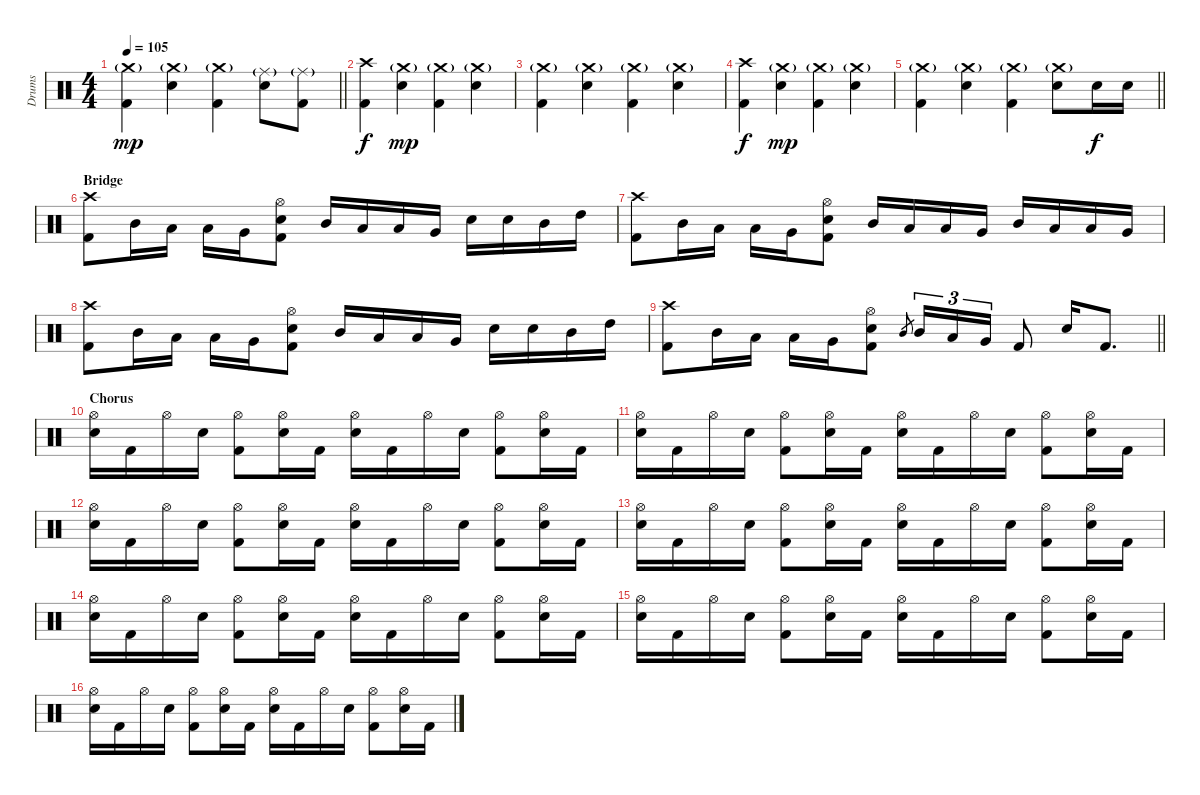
\track ("Drums" "Drums") {instrument percussion}
\staff {score}
\articulation defaults
\ts (4 4)
\tempo 105
\clef neutral
\barLineRight lightlight
\ks c
("Crash medium (hit)"{g} "Kick (hit) 2").4{dy mp} ("Crash medium (hit)"{g} "Snare (hit) 2").4 ("Crash medium (hit)"{g} "Kick (hit) 2").4 ("Ride (middle)"{g} "Snare (hit) 2").8 ("Ride (middle)"{g} "Kick (hit) 2").8 |
("Crash high (hit)" "Kick (hit) 2").4{dy f} ("Crash medium (hit)"{g} "Snare (hit) 2").4{dy mp} ("Crash medium (hit)"{g} "Kick (hit) 2").4 ("Crash medium (hit)"{g} "Snare (hit) 2").4 |
("Crash medium (hit)"{g} "Kick (hit) 2").4 ("Crash medium (hit)"{g} "Snare (hit) 2").4 ("Crash medium (hit)"{g} "Kick (hit) 2").4 ("Crash medium (hit)"{g} "Snare (hit) 2").4 |
("Crash high (hit)" "Kick (hit) 2").4{dy f} ("Crash medium (hit)"{g} "Snare (hit) 2").4{dy mp} ("Crash medium (hit)"{g} "Kick (hit) 2").4 ("Crash medium (hit)"{g} "Snare (hit) 2").4 |
\barLineRight lightlight
("Crash medium (hit)"{g} "Kick (hit) 2").4 ("Crash medium (hit)"{g} "Snare (hit) 2").4 ("Crash medium (hit)"{g} "Kick (hit) 2").4 ("Crash medium (hit)"{g} "Snare (hit) 2").8 "Snare (hit) 2".16{dy f} "Snare (hit) 2".16 |
\section ("" "Bridge")
("Crash high (hit)" "Kick (hit) 2").8 "Mid Tom (hit)".16 "Low Tom (hit)".16 "Low Tom (hit)".16 "Very Low Tom (hit)".16 ("Hi-Hat (open)" "Snare (hit) 2" "Kick (hit) 2").8 "Mid Tom (hit)".16 "Low Tom (hit)".16 "Low Tom (hit)".16 "Very Low Tom (hit)".16 "Snare (hit) 2".16 "Snare (hit) 2".16 "Mid Tom (hit)".16 "High Tom (hit)".16 |
("Crash high (hit)" "Kick (hit) 2").8 "Mid Tom (hit)".16 "Low Tom (hit)".16 "Low Tom (hit)".16 "Very Low Tom (hit)".16 ("Hi-Hat (open)" "Snare (hit) 2" "Kick (hit) 2").8 "Mid Tom (hit)".16 "Low Tom (hit)".16 "Low Tom (hit)".16 "Very Low Tom (hit)".16 "Mid Tom (hit)".16 "Low Tom (hit)".16 "Low Tom (hit)".16 "Very Low Tom (hit)".16 |
("Crash high (hit)" "Kick (hit) 2").8 "Mid Tom (hit)".16 "Low Tom (hit)".16 "Low Tom (hit)".16 "Very Low Tom (hit)".16 ("Hi-Hat (open)" "Snare (hit) 2" "Kick (hit) 2").8 "Mid Tom (hit)".16 "Low Tom (hit)".16 "Low Tom (hit)".16 "Very Low Tom (hit)".16 "Snare (hit) 2".16 "Snare (hit) 2".16 "Mid Tom (hit)".16 "High Tom (hit)".16 |
\barLineRight lightlight
("Crash high (hit)" "Kick (hit) 2").8 "Mid Tom (hit)".16 "Low Tom (hit)".16 "Low Tom (hit)".16 "Very Low Tom (hit)".16 ("Hi-Hat (open)" "Snare (hit) 2" "Kick (hit) 2").8 "Mid Tom (hit)".8{gr} "Mid Tom (hit)".16{tu (3 2)} "Low Tom (hit)".16{tu (3 2)} "Very Low Tom (hit)".16{tu (3 2)} "Kick (hit) 2".8 "Snare (hit) 2".16 "Kick (hit) 2".8{d} |
\section ("" "Chorus")
("Hi-Hat (open)" "Snare (hit) 2").16 "Kick (hit) 2".16 "Hi-Hat (open)".16 "Snare (hit) 2".16 ("Hi-Hat (open)" "Kick (hit) 2").8 ("Hi-Hat (open)" "Snare (hit) 2").16 "Kick (hit) 2".16 ("Hi-Hat (open)" "Snare (hit) 2").16 "Kick (hit) 2".16 "Hi-Hat (open)".16 "Snare (hit) 2".16 ("Hi-Hat (open)" "Kick (hit) 2").8 ("Hi-Hat (open)" "Snare (hit) 2").16 "Kick (hit) 2".16 |
("Hi-Hat (open)" "Snare (hit) 2").16 "Kick (hit) 2".16 "Hi-Hat (open)".16 "Snare (hit) 2".16 ("Hi-Hat (open)" "Kick (hit) 2").8 ("Hi-Hat (open)" "Snare (hit) 2").16 "Kick (hit) 2".16 ("Hi-Hat (open)" "Snare (hit) 2").16 "Kick (hit) 2".16 "Hi-Hat (open)".16 "Snare (hit) 2".16 ("Hi-Hat (open)" "Kick (hit) 2").8 ("Hi-Hat (open)" "Snare (hit) 2").16 "Kick (hit) 2".16 |
("Hi-Hat (open)" "Snare (hit) 2").16 "Kick (hit) 2".16 "Hi-Hat (open)".16 "Snare (hit) 2".16 ("Hi-Hat (open)" "Kick (hit) 2").8 ("Hi-Hat (open)" "Snare (hit) 2").16 "Kick (hit) 2".16 ("Hi-Hat (open)" "Snare (hit) 2").16 "Kick (hit) 2".16 "Hi-Hat (open)".16 "Snare (hit) 2".16 ("Hi-Hat (open)" "Kick (hit) 2").8 ("Hi-Hat (open)" "Snare (hit) 2").16 "Kick (hit) 2".16 |
("Hi-Hat (open)" "Snare (hit) 2").16 "Kick (hit) 2".16 "Hi-Hat (open)".16 "Snare (hit) 2".16 ("Hi-Hat (open)" "Kick (hit) 2").8 ("Hi-Hat (open)" "Snare (hit) 2").16 "Kick (hit) 2".16 ("Hi-Hat (open)" "Snare (hit) 2").16 "Kick (hit) 2".16 "Hi-Hat (open)".16 "Snare (hit) 2".16 ("Hi-Hat (open)" "Kick (hit) 2").8 ("Hi-Hat (open)" "Snare (hit) 2").16 "Kick (hit) 2".16 |
("Hi-Hat (open)" "Snare (hit) 2").16 "Kick (hit) 2".16 "Hi-Hat (open)".16 "Snare (hit) 2".16 ("Hi-Hat (open)" "Kick (hit) 2").8 ("Hi-Hat (open)" "Snare (hit) 2").16 "Kick (hit) 2".16 ("Hi-Hat (open)" "Snare (hit) 2").16 "Kick (hit) 2".16 "Hi-Hat (open)".16 "Snare (hit) 2".16 ("Hi-Hat (open)" "Kick (hit) 2").8 ("Hi-Hat (open)" "Snare (hit) 2").16 "Kick (hit) 2".16 |
("Hi-Hat (open)" "Snare (hit) 2").16 "Kick (hit) 2".16 "Hi-Hat (open)".16 "Snare (hit) 2".16 ("Hi-Hat (open)" "Kick (hit) 2").8 ("Hi-Hat (open)" "Snare (hit) 2").16 "Kick (hit) 2".16 ("Hi-Hat (open)" "Snare (hit) 2").16 "Kick (hit) 2".16 "Hi-Hat (open)".16 "Snare (hit) 2".16 ("Hi-Hat (open)" "Kick (hit) 2").8 ("Hi-Hat (open)" "Snare (hit) 2").16 "Kick (hit) 2".16 |
("Hi-Hat (open)" "Snare (hit) 2").16 "Kick (hit) 2".16 "Hi-Hat (open)".16 "Snare (hit) 2".16 ("Hi-Hat (open)" "Kick (hit) 2").8 ("Hi-Hat (open)" "Snare (hit) 2").16 "Kick (hit) 2".16 ("Hi-Hat (open)" "Snare (hit) 2").16 "Kick (hit) 2".16 "Hi-Hat (open)".16 "Snare (hit) 2".16 ("Hi-Hat (open)" "Kick (hit) 2").8 ("Hi-Hat (open)" "Snare (hit) 2").16 "Kick (hit) 2".16
